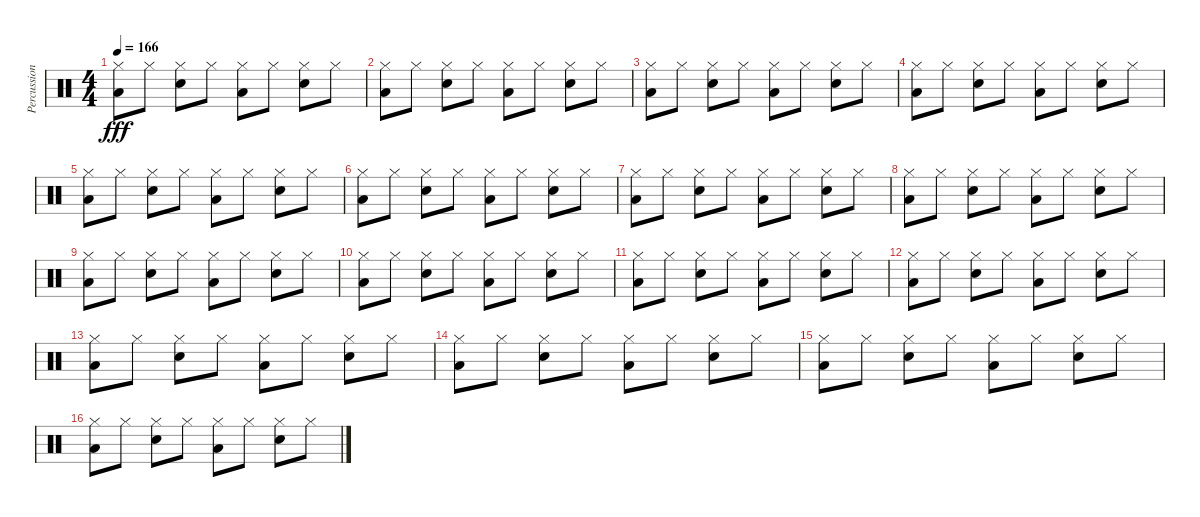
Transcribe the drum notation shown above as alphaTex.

\track ("Percussions" "Percussion") {instrument percussion}
\staff {score}
\articulation defaults
\ts (4 4)
\tempo 166
\clef neutral
\ks c
("Low Tom (hit)" "Hi-Hat (closed)").8{dy fff} "Hi-Hat (closed)".8 ("Snare (hit) 2" "Hi-Hat (closed)").8 "Hi-Hat (closed)".8 ("Low Tom (hit)" "Hi-Hat (closed)").8 "Hi-Hat (closed)".8 ("Snare (hit) 2" "Hi-Hat (closed)").8 "Hi-Hat (closed)".8 |
("Low Tom (hit)" "Hi-Hat (closed)").8 "Hi-Hat (closed)".8 ("Snare (hit) 2" "Hi-Hat (closed)").8 "Hi-Hat (closed)".8 ("Low Tom (hit)" "Hi-Hat (closed)").8 "Hi-Hat (closed)".8 ("Snare (hit) 2" "Hi-Hat (closed)").8 "Hi-Hat (closed)".8 |
("Low Tom (hit)" "Hi-Hat (closed)").8 "Hi-Hat (closed)".8 ("Snare (hit) 2" "Hi-Hat (closed)").8 "Hi-Hat (closed)".8 ("Low Tom (hit)" "Hi-Hat (closed)").8 "Hi-Hat (closed)".8 ("Snare (hit) 2" "Hi-Hat (closed)").8 "Hi-Hat (closed)".8 |
("Low Tom (hit)" "Hi-Hat (closed)").8 "Hi-Hat (closed)".8 ("Snare (hit) 2" "Hi-Hat (closed)").8 "Hi-Hat (closed)".8 ("Low Tom (hit)" "Hi-Hat (closed)").8 "Hi-Hat (closed)".8 ("Snare (hit) 2" "Hi-Hat (closed)").8 "Hi-Hat (closed)".8 |
("Low Tom (hit)" "Hi-Hat (closed)").8 "Hi-Hat (closed)".8 ("Snare (hit) 2" "Hi-Hat (closed)").8 "Hi-Hat (closed)".8 ("Low Tom (hit)" "Hi-Hat (closed)").8 "Hi-Hat (closed)".8 ("Snare (hit) 2" "Hi-Hat (closed)").8 "Hi-Hat (closed)".8 |
("Low Tom (hit)" "Hi-Hat (closed)").8 "Hi-Hat (closed)".8 ("Snare (hit) 2" "Hi-Hat (closed)").8 "Hi-Hat (closed)".8 ("Low Tom (hit)" "Hi-Hat (closed)").8 "Hi-Hat (closed)".8 ("Snare (hit) 2" "Hi-Hat (closed)").8 "Hi-Hat (closed)".8 |
("Low Tom (hit)" "Hi-Hat (closed)").8 "Hi-Hat (closed)".8 ("Snare (hit) 2" "Hi-Hat (closed)").8 "Hi-Hat (closed)".8 ("Low Tom (hit)" "Hi-Hat (closed)").8 "Hi-Hat (closed)".8 ("Snare (hit) 2" "Hi-Hat (closed)").8 "Hi-Hat (closed)".8 |
("Low Tom (hit)" "Hi-Hat (closed)").8 "Hi-Hat (closed)".8 ("Snare (hit) 2" "Hi-Hat (closed)").8 "Hi-Hat (closed)".8 ("Low Tom (hit)" "Hi-Hat (closed)").8 "Hi-Hat (closed)".8 ("Snare (hit) 2" "Hi-Hat (closed)").8 "Hi-Hat (closed)".8 |
("Low Tom (hit)" "Hi-Hat (closed)").8 "Hi-Hat (closed)".8 ("Snare (hit) 2" "Hi-Hat (closed)").8 "Hi-Hat (closed)".8 ("Low Tom (hit)" "Hi-Hat (closed)").8 "Hi-Hat (closed)".8 ("Snare (hit) 2" "Hi-Hat (closed)").8 "Hi-Hat (closed)".8 |
("Low Tom (hit)" "Hi-Hat (closed)").8 "Hi-Hat (closed)".8 ("Snare (hit) 2" "Hi-Hat (closed)").8 "Hi-Hat (closed)".8 ("Low Tom (hit)" "Hi-Hat (closed)").8 "Hi-Hat (closed)".8 ("Snare (hit) 2" "Hi-Hat (closed)").8 "Hi-Hat (closed)".8 |
("Low Tom (hit)" "Hi-Hat (closed)").8 "Hi-Hat (closed)".8 ("Snare (hit) 2" "Hi-Hat (closed)").8 "Hi-Hat (closed)".8 ("Low Tom (hit)" "Hi-Hat (closed)").8 "Hi-Hat (closed)".8 ("Snare (hit) 2" "Hi-Hat (closed)").8 "Hi-Hat (closed)".8 |
("Low Tom (hit)" "Hi-Hat (closed)").8 "Hi-Hat (closed)".8 ("Snare (hit) 2" "Hi-Hat (closed)").8 "Hi-Hat (closed)".8 ("Low Tom (hit)" "Hi-Hat (closed)").8 "Hi-Hat (closed)".8 ("Snare (hit) 2" "Hi-Hat (closed)").8 "Hi-Hat (closed)".8 |
("Low Tom (hit)" "Hi-Hat (closed)").8 "Hi-Hat (closed)".8 ("Snare (hit) 2" "Hi-Hat (closed)").8 "Hi-Hat (closed)".8 ("Low Tom (hit)" "Hi-Hat (closed)").8 "Hi-Hat (closed)".8 ("Snare (hit) 2" "Hi-Hat (closed)").8 "Hi-Hat (closed)".8 |
("Low Tom (hit)" "Hi-Hat (closed)").8 "Hi-Hat (closed)".8 ("Snare (hit) 2" "Hi-Hat (closed)").8 "Hi-Hat (closed)".8 ("Low Tom (hit)" "Hi-Hat (closed)").8 "Hi-Hat (closed)".8 ("Snare (hit) 2" "Hi-Hat (closed)").8 "Hi-Hat (closed)".8 |
("Low Tom (hit)" "Hi-Hat (closed)").8 "Hi-Hat (closed)".8 ("Snare (hit) 2" "Hi-Hat (closed)").8 "Hi-Hat (closed)".8 ("Low Tom (hit)" "Hi-Hat (closed)").8 "Hi-Hat (closed)".8 ("Snare (hit) 2" "Hi-Hat (closed)").8 "Hi-Hat (closed)".8 |
("Low Tom (hit)" "Hi-Hat (closed)").8 "Hi-Hat (closed)".8 ("Snare (hit) 2" "Hi-Hat (closed)").8 "Hi-Hat (closed)".8 ("Low Tom (hit)" "Hi-Hat (closed)").8 "Hi-Hat (closed)".8 ("Snare (hit) 2" "Hi-Hat (closed)").8 "Hi-Hat (closed)".8
